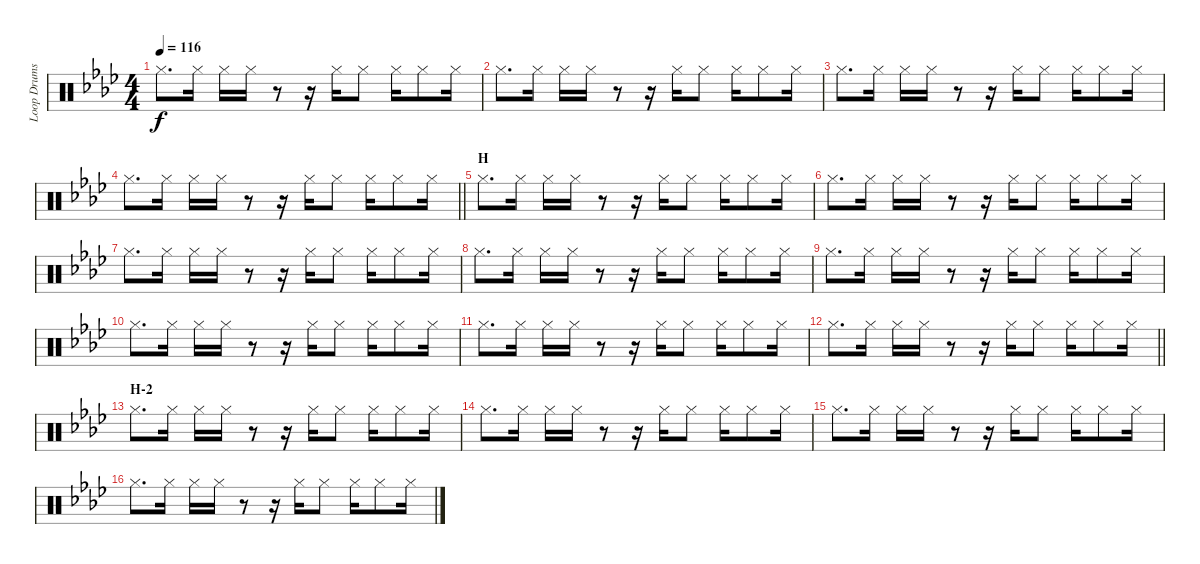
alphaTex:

\track ("Loop Drums II" "Loop Drums") {instrument percussion}
\staff {score}
\articulation defaults
\ts (4 4)
\tempo 116
\clef neutral
\ks ab "Hi-Hat (closed)".8{d dy f} "Hi-Hat (closed)".16 "Hi-Hat (closed)".16 "Hi-Hat (closed)".16
r.8 r.16 "Hi-Hat (closed)".16 "Hi-Hat (closed)".8 "Hi-Hat (closed)".16 "Hi-Hat (closed)".8 "Hi-Hat (closed)".16 |
"Hi-Hat (closed)".8{d} "Hi-Hat (closed)".16 "Hi-Hat (closed)".16 "Hi-Hat (closed)".16 r.8 r.16 "Hi-Hat (closed)".16 "Hi-Hat (closed)".8 "Hi-Hat (closed)".16 "Hi-Hat (closed)".8 "Hi-Hat (closed)".16 |
"Hi-Hat (closed)".8{d} "Hi-Hat (closed)".16 "Hi-Hat (closed)".16 "Hi-Hat (closed)".16 r.8 r.16 "Hi-Hat (closed)".16 "Hi-Hat (closed)".8 "Hi-Hat (closed)".16 "Hi-Hat (closed)".8 "Hi-Hat (closed)".16 |
\barLineRight lightlight "Hi-Hat (closed)".8{d} "Hi-Hat (closed)".16 "Hi-Hat (closed)".16 "Hi-Hat (closed)".16
r.8 r.16 "Hi-Hat (closed)".16 "Hi-Hat (closed)".8 "Hi-Hat (closed)".16 "Hi-Hat (closed)".8 "Hi-Hat (closed)".16 |
\section ("" "H")
"Hi-Hat (closed)".8{d} "Hi-Hat (closed)".16 "Hi-Hat (closed)".16 "Hi-Hat (closed)".16 r.8 r.16 "Hi-Hat (closed)".16 "Hi-Hat (closed)".8 "Hi-Hat (closed)".16 "Hi-Hat (closed)".8 "Hi-Hat (closed)".16 |
"Hi-Hat (closed)".8{d} "Hi-Hat (closed)".16 "Hi-Hat (closed)".16 "Hi-Hat (closed)".16 r.8 r.16 "Hi-Hat (closed)".16 "Hi-Hat (closed)".8 "Hi-Hat (closed)".16 "Hi-Hat (closed)".8 "Hi-Hat (closed)".16 |
"Hi-Hat (closed)".8{d} "Hi-Hat (closed)".16 "Hi-Hat (closed)".16 "Hi-Hat (closed)".16 r.8 r.16 "Hi-Hat (closed)".16 "Hi-Hat (closed)".8 "Hi-Hat (closed)".16 "Hi-Hat (closed)".8 "Hi-Hat (closed)".16 |
"Hi-Hat (closed)".8{d} "Hi-Hat (closed)".16 "Hi-Hat (closed)".16 "Hi-Hat (closed)".16 r.8 r.16 "Hi-Hat (closed)".16 "Hi-Hat (closed)".8 "Hi-Hat (closed)".16 "Hi-Hat (closed)".8 "Hi-Hat (closed)".16 |
"Hi-Hat (closed)".8{d} "Hi-Hat (closed)".16 "Hi-Hat (closed)".16 "Hi-Hat (closed)".16 r.8 r.16 "Hi-Hat (closed)".16 "Hi-Hat (closed)".8 "Hi-Hat (closed)".16 "Hi-Hat (closed)".8 "Hi-Hat (closed)".16 |
"Hi-Hat (closed)".8{d} "Hi-Hat (closed)".16 "Hi-Hat (closed)".16 "Hi-Hat (closed)".16 r.8 r.16 "Hi-Hat (closed)".16 "Hi-Hat (closed)".8 "Hi-Hat (closed)".16 "Hi-Hat (closed)".8 "Hi-Hat (closed)".16 |
"Hi-Hat (closed)".8{d} "Hi-Hat (closed)".16 "Hi-Hat (closed)".16 "Hi-Hat (closed)".16 r.8 r.16 "Hi-Hat (closed)".16 "Hi-Hat (closed)".8 "Hi-Hat (closed)".16 "Hi-Hat (closed)".8 "Hi-Hat (closed)".16 |
\barLineRight lightlight "Hi-Hat (closed)".8{d} "Hi-Hat (closed)".16 "Hi-Hat (closed)".16 "Hi-Hat (closed)".16
r.8 r.16 "Hi-Hat (closed)".16 "Hi-Hat (closed)".8 "Hi-Hat (closed)".16 "Hi-Hat (closed)".8 "Hi-Hat (closed)".16 |
\section ("" "H-2")
"Hi-Hat (closed)".8{d} "Hi-Hat (closed)".16 "Hi-Hat (closed)".16 "Hi-Hat (closed)".16 r.8 r.16 "Hi-Hat (closed)".16 "Hi-Hat (closed)".8 "Hi-Hat (closed)".16 "Hi-Hat (closed)".8 "Hi-Hat (closed)".16 |
"Hi-Hat (closed)".8{d} "Hi-Hat (closed)".16 "Hi-Hat (closed)".16 "Hi-Hat (closed)".16 r.8 r.16 "Hi-Hat (closed)".16 "Hi-Hat (closed)".8 "Hi-Hat (closed)".16 "Hi-Hat (closed)".8 "Hi-Hat (closed)".16 |
"Hi-Hat (closed)".8{d} "Hi-Hat (closed)".16 "Hi-Hat (closed)".16 "Hi-Hat (closed)".16 r.8 r.16 "Hi-Hat (closed)".16 "Hi-Hat (closed)".8 "Hi-Hat (closed)".16 "Hi-Hat (closed)".8 "Hi-Hat (closed)".16 |
"Hi-Hat (closed)".8{d} "Hi-Hat (closed)".16 "Hi-Hat (closed)".16 "Hi-Hat (closed)".16 r.8 r.16 "Hi-Hat (closed)".16 "Hi-Hat (closed)".8 "Hi-Hat (closed)".16 "Hi-Hat (closed)".8 "Hi-Hat (closed)".16
